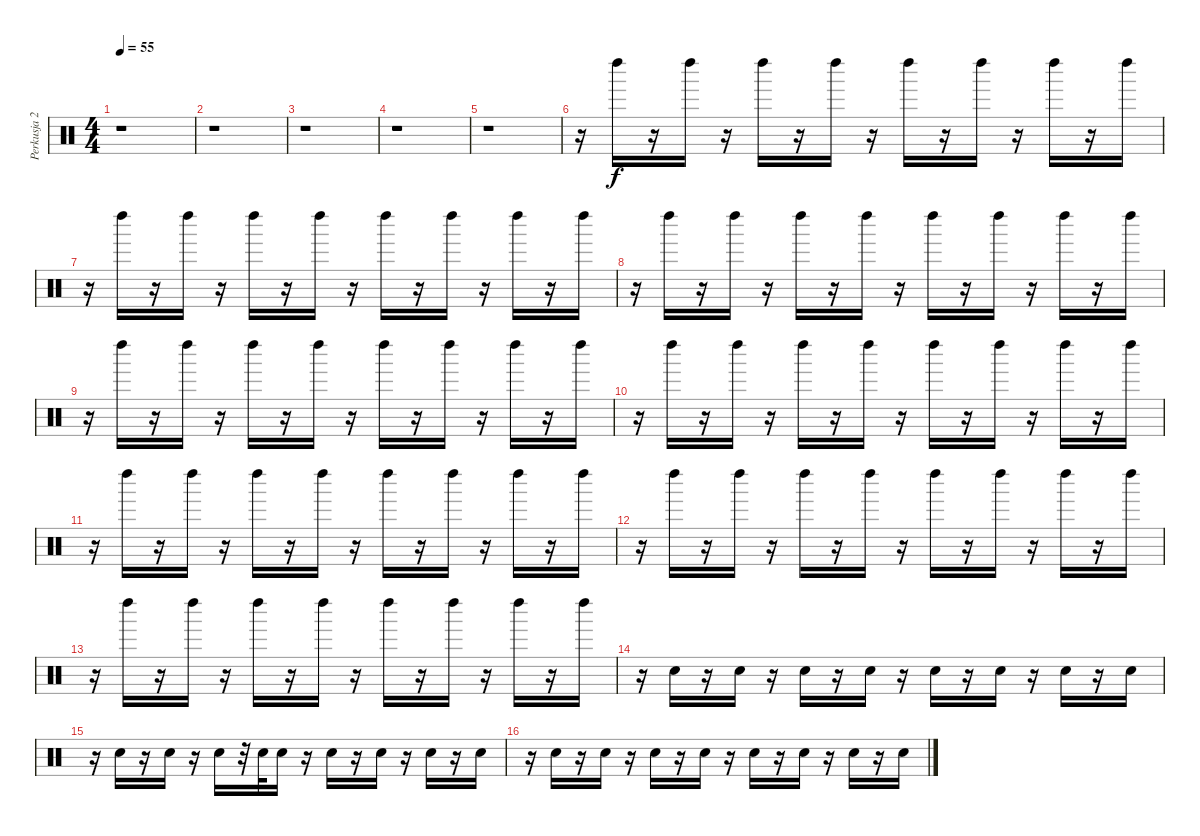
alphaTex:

\track ("Perkusja 2" "Perkusja 2") {instrument percussion}
\staff {score}
\articulation defaults
\ts (4 4)
\tempo 55
\clef neutral
\ks c
r.1{dy f} |
r.1 |
r.1 |
r.1 |
r.1 |
r.16 "Left Maraca (hit)".16 r.16 "Left Maraca (hit)".16 r.16 "Left Maraca (hit)".16 r.16 "Left Maraca (hit)".16 r.16 "Left Maraca (hit)".16 r.16 "Left Maraca (hit)".16 r.16 "Left Maraca (hit)".16 r.16 "Left Maraca (hit)".16 |
r.16 "Left Maraca (hit)".16 r.16 "Left Maraca (hit)".16 r.16 "Left Maraca (hit)".16 r.16 "Left Maraca (hit)".16 r.16 "Left Maraca (hit)".16 r.16 "Left Maraca (hit)".16 r.16 "Left Maraca (hit)".16 r.16 "Left Maraca (hit)".16 |
r.16 "Left Maraca (hit)".16 r.16 "Left Maraca (hit)".16 r.16 "Left Maraca (hit)".16 r.16 "Left Maraca (hit)".16 r.16 "Left Maraca (hit)".16 r.16 "Left Maraca (hit)".16 r.16 "Left Maraca (hit)".16 r.16 "Left Maraca (hit)".16 |
r.16 "Left Maraca (hit)".16 r.16 "Left Maraca (hit)".16 r.16 "Left Maraca (hit)".16 r.16 "Left Maraca (hit)".16 r.16 "Left Maraca (hit)".16 r.16 "Left Maraca (hit)".16 r.16 "Left Maraca (hit)".16 r.16 "Left Maraca (hit)".16 |
r.16 "Left Maraca (hit)".16 r.16 "Left Maraca (hit)".16 r.16 "Left Maraca (hit)".16 r.16 "Left Maraca (hit)".16 r.16 "Left Maraca (hit)".16 r.16 "Left Maraca (hit)".16 r.16 "Left Maraca (hit)".16 r.16 "Left Maraca (hit)".16 |
r.16 "Left Maraca (hit)".16 r.16 "Left Maraca (hit)".16 r.16 "Left Maraca (hit)".16 r.16 "Left Maraca (hit)".16 r.16 "Left Maraca (hit)".16 r.16 "Left Maraca (hit)".16 r.16 "Left Maraca (hit)".16 r.16 "Left Maraca (hit)".16 |
r.16 "Left Maraca (hit)".16 r.16 "Left Maraca (hit)".16 r.16 "Left Maraca (hit)".16 r.16 "Left Maraca (hit)".16 r.16 "Left Maraca (hit)".16 r.16 "Left Maraca (hit)".16 r.16 "Left Maraca (hit)".16 r.16 "Left Maraca (hit)".16 |
r.16 "Left Maraca (hit)".16 r.16 "Left Maraca (hit)".16 r.16 "Left Maraca (hit)".16 r.16 "Left Maraca (hit)".16 r.16 "Left Maraca (hit)".16 r.16 "Left Maraca (hit)".16 r.16 "Left Maraca (hit)".16 r.16 "Left Maraca (hit)".16 |
r.16 "Hand Clap (hit)".16 r.16 "Hand Clap (hit)".16 r.16 "Hand Clap (hit)".16 r.16 "Hand Clap (hit)".16 r.16 "Hand Clap (hit)".16 r.16 "Hand Clap (hit)".16 r.16 "Hand Clap (hit)".16 r.16 "Hand Clap (hit)".16 |
r.16 "Hand Clap (hit)".16 r.16 "Hand Clap (hit)".16 r.16 "Hand Clap (hit)".16 r.32 "Hand Clap (hit)".32 "Hand Clap (hit)".16 r.16 "Hand Clap (hit)".16 r.16 "Hand Clap (hit)".16 r.16 "Hand Clap (hit)".16 r.16 "Hand Clap (hit)".16 |
r.16 "Hand Clap (hit)".16 r.16 "Hand Clap (hit)".16 r.16 "Hand Clap (hit)".16 r.16 "Hand Clap (hit)".16 r.16 "Hand Clap (hit)".16 r.16 "Hand Clap (hit)".16 r.16 "Hand Clap (hit)".16 r.16 "Hand Clap (hit)".16
